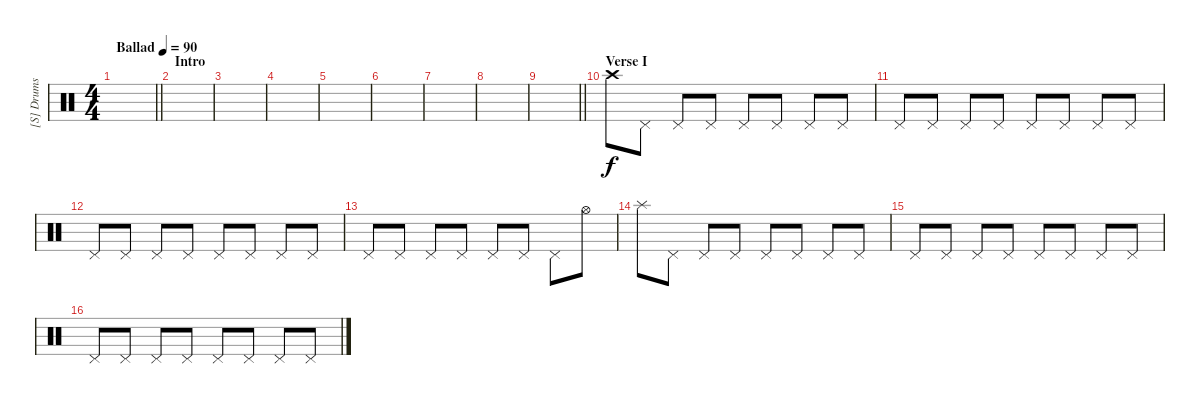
\track ("[S] Drums II (Stewart)" "[S] Drums ") {instrument percussion}
\staff {score}
\articulation defaults
\ts (4 4)
\tempo (90 "Ballad")
\clef neutral
\barLineRight lightlight
\ks c
|
\section ("" "Intro")
|
|
|
|
|
|
|
\barLineRight lightlight
|
\section ("" "Verse I")
"Crash high (hit)".8 "Pedal Hi-Hat (hit)".8 "Pedal Hi-Hat (hit)".8 "Pedal Hi-Hat (hit)".8 "Pedal Hi-Hat (hit)".8 "Pedal Hi-Hat (hit)".8 "Pedal Hi-Hat (hit)".8 "Pedal Hi-Hat (hit)".8 |
"Pedal Hi-Hat (hit)".8 "Pedal Hi-Hat (hit)".8 "Pedal Hi-Hat (hit)".8 "Pedal Hi-Hat (hit)".8 "Pedal Hi-Hat (hit)".8 "Pedal Hi-Hat (hit)".8 "Pedal Hi-Hat (hit)".8 "Pedal Hi-Hat (hit)".8 |
"Pedal Hi-Hat (hit)".8 "Pedal Hi-Hat (hit)".8 "Pedal Hi-Hat (hit)".8 "Pedal Hi-Hat (hit)".8 "Pedal Hi-Hat (hit)".8 "Pedal Hi-Hat (hit)".8 "Pedal Hi-Hat (hit)".8 "Pedal Hi-Hat (hit)".8 |
"Pedal Hi-Hat (hit)".8 "Pedal Hi-Hat (hit)".8 "Pedal Hi-Hat (hit)".8 "Pedal Hi-Hat (hit)".8 "Pedal Hi-Hat (hit)".8 "Pedal Hi-Hat (hit)".8 "Pedal Hi-Hat (hit)".8 "Hi-Hat (open)".8 |
"Splash (hit)".8 "Pedal Hi-Hat (hit)".8 "Pedal Hi-Hat (hit)".8 "Pedal Hi-Hat (hit)".8 "Pedal Hi-Hat (hit)".8 "Pedal Hi-Hat (hit)".8 "Pedal Hi-Hat (hit)".8 "Pedal Hi-Hat (hit)".8 |
"Pedal Hi-Hat (hit)".8 "Pedal Hi-Hat (hit)".8 "Pedal Hi-Hat (hit)".8 "Pedal Hi-Hat (hit)".8 "Pedal Hi-Hat (hit)".8 "Pedal Hi-Hat (hit)".8 "Pedal Hi-Hat (hit)".8 "Pedal Hi-Hat (hit)".8 |
"Pedal Hi-Hat (hit)".8 "Pedal Hi-Hat (hit)".8 "Pedal Hi-Hat (hit)".8 "Pedal Hi-Hat (hit)".8 "Pedal Hi-Hat (hit)".8 "Pedal Hi-Hat (hit)".8 "Pedal Hi-Hat (hit)".8 "Pedal Hi-Hat (hit)".8
